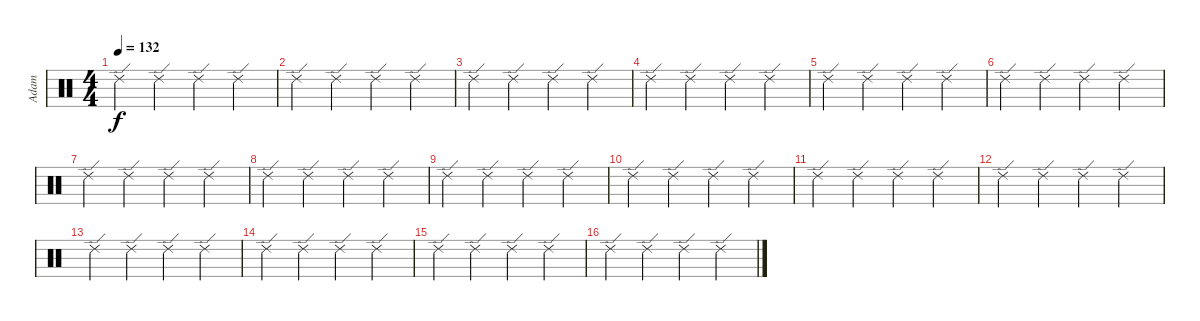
\track ("Adam" "Adam") {instrument percussion}
\staff {score}
\articulation defaults
\ts (4 4)
\tempo 132
\clef neutral
\ks c "Ride (edge) 2".4{dy f} "Ride (edge) 2".4 "Ride (edge) 2".4 "Ride (edge) 2".4
|
"Ride (edge) 2".4 "Ride (edge) 2".4 "Ride (edge) 2".4 "Ride (edge) 2".4 |
"Ride (edge) 2".4 "Ride (edge) 2".4 "Ride (edge) 2".4 "Ride (edge) 2".4 |
"Ride (edge) 2".4 "Ride (edge) 2".4 "Ride (edge) 2".4 "Ride (edge) 2".4 |
"Ride (edge) 2".4 "Ride (edge) 2".4 "Ride (edge) 2".4 "Ride (edge) 2".4 |
"Ride (edge) 2".4 "Ride (edge) 2".4 "Ride (edge) 2".4 "Ride (edge) 2".4 |
"Ride (edge) 2".4 "Ride (edge) 2".4 "Ride (edge) 2".4 "Ride (edge) 2".4 |
"Ride (edge) 2".4 "Ride (edge) 2".4 "Ride (edge) 2".4 "Ride (edge) 2".4 |
"Ride (edge) 2".4 "Ride (edge) 2".4 "Ride (edge) 2".4 "Ride (edge) 2".4 |
"Ride (edge) 2".4 "Ride (edge) 2".4 "Ride (edge) 2".4 "Ride (edge) 2".4 |
"Ride (edge) 2".4 "Ride (edge) 2".4 "Ride (edge) 2".4 "Ride (edge) 2".4 |
"Ride (edge) 2".4 "Ride (edge) 2".4 "Ride (edge) 2".4 "Ride (edge) 2".4 |
"Ride (edge) 2".4 "Ride (edge) 2".4 "Ride (edge) 2".4 "Ride (edge) 2".4 |
"Ride (edge) 2".4 "Ride (edge) 2".4 "Ride (edge) 2".4 "Ride (edge) 2".4 |
"Ride (edge) 2".4 "Ride (edge) 2".4 "Ride (edge) 2".4 "Ride (edge) 2".4 |
"Ride (edge) 2".4 "Ride (edge) 2".4 "Ride (edge) 2".4 "Ride (edge) 2".4
